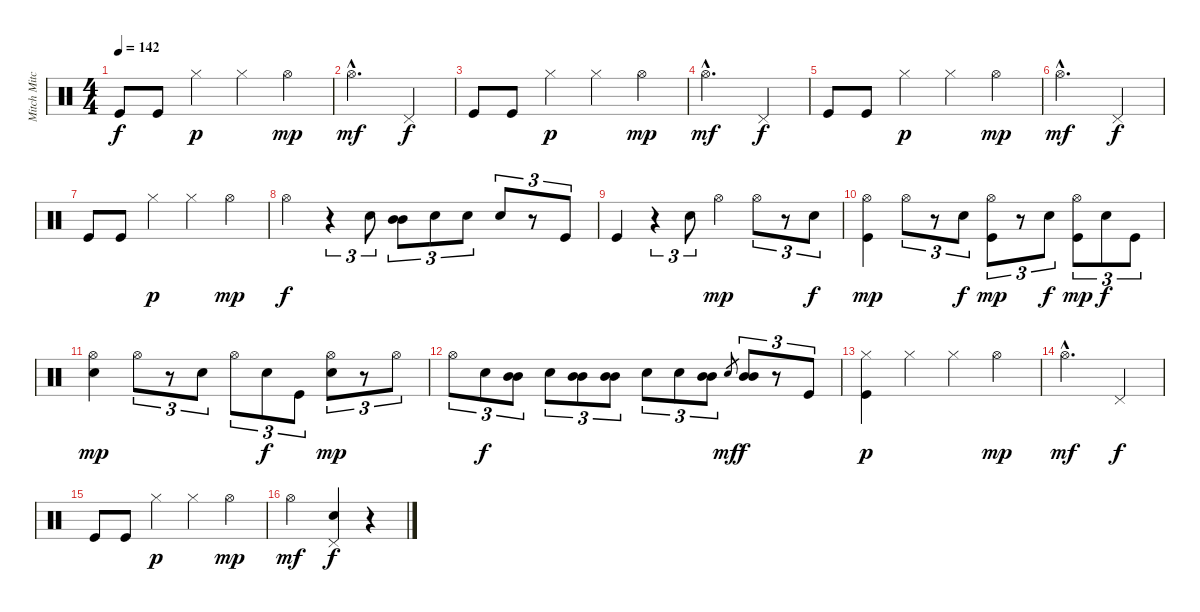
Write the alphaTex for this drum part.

\track ("Mitch Mitchell" "Mitch Mitc") {instrument percussion}
\staff {score}
\articulation defaults
\ts (4 4)
\tempo 142
\clef neutral
\ks c "Kick (hit)".8{dy f} "Kick (hit)".8 "Hi-Hat (closed)".4{dy p} "Hi-Hat (closed)".4 "Hi-Hat (open)".4{dy mp}
|
"Hi-Hat (open)"{hac}.2{d dy mf} "Pedal Hi-Hat (hit)".4{dy f} |
"Kick (hit)".8 "Kick (hit)".8 "Hi-Hat (closed)".4{dy p} "Hi-Hat (closed)".4 "Hi-Hat (open)".4{dy mp} |
"Hi-Hat (open)"{hac}.2{d dy mf} "Pedal Hi-Hat (hit)".4{dy f} |
"Kick (hit)".8 "Kick (hit)".8 "Hi-Hat (closed)".4{dy p} "Hi-Hat (closed)".4 "Hi-Hat (open)".4{dy mp} |
"Hi-Hat (open)"{hac}.2{d dy mf} "Pedal Hi-Hat (hit)".4{dy f} |
"Kick (hit)".8 "Kick (hit)".8 "Hi-Hat (closed)".4{dy p} "Hi-Hat (closed)".4 "Hi-Hat (open)".4{dy mp} |
"Hi-Hat (open)".4{dy f} r.4{tu (3 2)} "Electric Snare (hit)".8{tu (3 2)} ("Mid Tom (hit)" "Mid Tom (hit)").8{tu (3 2)} "Electric Snare (hit)".8{tu (3 2)} "Electric Snare (hit)".8{tu (3 2)} "Electric Snare (hit)".8{tu (3 2)} r.8{tu (3 2)} "Kick (hit)".8{tu (3 2)} |
"Kick (hit)".4 r.4{tu (3 2)} "Electric Snare (hit)".8{tu (3 2)} "Hi-Hat (open)".4{dy mp} "Hi-Hat (open)".8{tu (3 2)} r.8{tu (3 2)} "Electric Snare (hit)".8{tu (3 2) dy f} |
("Hi-Hat (open)" "Kick (hit)").4{dy mp} "Hi-Hat (open)".8{tu (3 2)} r.8{tu (3 2)} "Electric Snare (hit)".8{tu (3 2) dy f} ("Hi-Hat (open)" "Kick (hit)").8{tu (3 2) dy mp} r.8{tu (3 2)} "Electric Snare (hit)".8{tu (3 2) dy f} ("Hi-Hat (open)" "Kick (hit)").8{tu (3 2) dy mp} "Electric Snare (hit)".8{tu (3 2) dy f} "Kick (hit)".8{tu (3 2)} |
("Hi-Hat (open)" "Electric Snare (hit)").4{dy mp} "Hi-Hat (open)".8{tu (3 2)} r.8{tu (3 2)} "Electric Snare (hit)".8{tu (3 2)} "Hi-Hat (open)".8{tu (3 2)} "Electric Snare (hit)".8{tu (3 2) dy f} "Kick (hit)".8{tu (3 2)} ("Hi-Hat (open)" "Electric Snare (hit)").8{tu (3 2) dy mp} r.8{tu (3 2)} "Hi-Hat (open)".8{tu (3 2)} |
"Hi-Hat (open)".8{tu (3 2)} "Electric Snare (hit)".8{tu (3 2) dy f} ("Mid Tom (hit)" "Mid Tom (hit)").8{tu (3 2)} "Electric Snare (hit)".8{tu (3 2)} ("Mid Tom (hit)" "Mid Tom (hit)").8{tu (3 2)} ("Mid Tom (hit)" "Mid Tom (hit)").8{tu (3 2)} "Electric Snare (hit)".8{tu (3 2)} "Electric Snare (hit)".8{tu (3 2)} ("Mid Tom (hit)" "Mid Tom (hit)").8{tu (3 2)} "Electric Snare (hit)".8{gr dy mf} ("Mid Tom (hit)" "Mid Tom (hit)").8{tu (3 2) dy f} r.8{tu (3 2)} "Kick (hit)".8{tu (3 2)} |
("Hi-Hat (closed)" "Kick (hit)").4{dy p} "Hi-Hat (closed)".4 "Hi-Hat (closed)".4 "Hi-Hat (open)".4{dy mp} |
"Hi-Hat (open)"{hac}.2{d dy mf} "Pedal Hi-Hat (hit)".4{dy f} |
"Kick (hit)".8 "Kick (hit)".8 "Hi-Hat (closed)".4{dy p} "Hi-Hat (closed)".4 "Hi-Hat (open)".4{dy mp} |
"Hi-Hat (open)".2{dy mf} ("Pedal Hi-Hat (hit)" "Electric Snare (hit)").4{dy f} r.4
